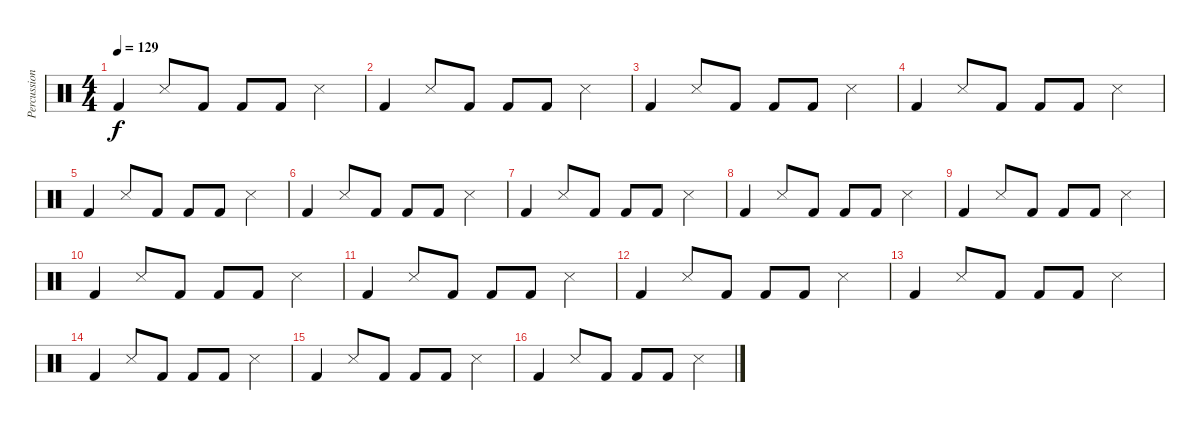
\track ("Percussion (Joel)" "Percussion") {instrument percussion}
\staff {score}
\articulation defaults
\ts (4 4)
\tempo 129
\clef neutral
\ks c "Kick (hit) 2".4{dy f} "Snare (side stick) 3".8 "Kick (hit) 2".8 "Kick (hit) 2".8 "Kick (hit) 2".8 "Snare (side stick) 3".4
|
"Kick (hit) 2".4 "Snare (side stick) 3".8 "Kick (hit) 2".8 "Kick (hit) 2".8 "Kick (hit) 2".8 "Snare (side stick) 3".4 |
"Kick (hit) 2".4 "Snare (side stick) 3".8 "Kick (hit) 2".8 "Kick (hit) 2".8 "Kick (hit) 2".8 "Snare (side stick) 3".4 |
"Kick (hit) 2".4 "Snare (side stick) 3".8 "Kick (hit) 2".8 "Kick (hit) 2".8 "Kick (hit) 2".8 "Snare (side stick) 3".4 |
"Kick (hit) 2".4 "Snare (side stick) 3".8 "Kick (hit) 2".8 "Kick (hit) 2".8 "Kick (hit) 2".8 "Snare (side stick) 3".4 |
"Kick (hit) 2".4 "Snare (side stick) 3".8 "Kick (hit) 2".8 "Kick (hit) 2".8 "Kick (hit) 2".8 "Snare (side stick) 3".4 |
"Kick (hit) 2".4 "Snare (side stick) 3".8 "Kick (hit) 2".8 "Kick (hit) 2".8 "Kick (hit) 2".8 "Snare (side stick) 3".4 |
"Kick (hit) 2".4 "Snare (side stick) 3".8 "Kick (hit) 2".8 "Kick (hit) 2".8 "Kick (hit) 2".8 "Snare (side stick) 3".4 |
"Kick (hit) 2".4 "Snare (side stick) 3".8 "Kick (hit) 2".8 "Kick (hit) 2".8 "Kick (hit) 2".8 "Snare (side stick) 3".4 |
"Kick (hit) 2".4 "Snare (side stick) 3".8 "Kick (hit) 2".8 "Kick (hit) 2".8 "Kick (hit) 2".8 "Snare (side stick) 3".4 |
"Kick (hit) 2".4 "Snare (side stick) 3".8 "Kick (hit) 2".8 "Kick (hit) 2".8 "Kick (hit) 2".8 "Snare (side stick) 3".4 |
"Kick (hit) 2".4 "Snare (side stick) 3".8 "Kick (hit) 2".8 "Kick (hit) 2".8 "Kick (hit) 2".8 "Snare (side stick) 3".4 |
"Kick (hit) 2".4 "Snare (side stick) 3".8 "Kick (hit) 2".8 "Kick (hit) 2".8 "Kick (hit) 2".8 "Snare (side stick) 3".4 |
"Kick (hit) 2".4 "Snare (side stick) 3".8 "Kick (hit) 2".8 "Kick (hit) 2".8 "Kick (hit) 2".8 "Snare (side stick) 3".4 |
"Kick (hit) 2".4 "Snare (side stick) 3".8 "Kick (hit) 2".8 "Kick (hit) 2".8 "Kick (hit) 2".8 "Snare (side stick) 3".4 |
"Kick (hit) 2".4 "Snare (side stick) 3".8 "Kick (hit) 2".8 "Kick (hit) 2".8 "Kick (hit) 2".8 "Snare (side stick) 3".4
